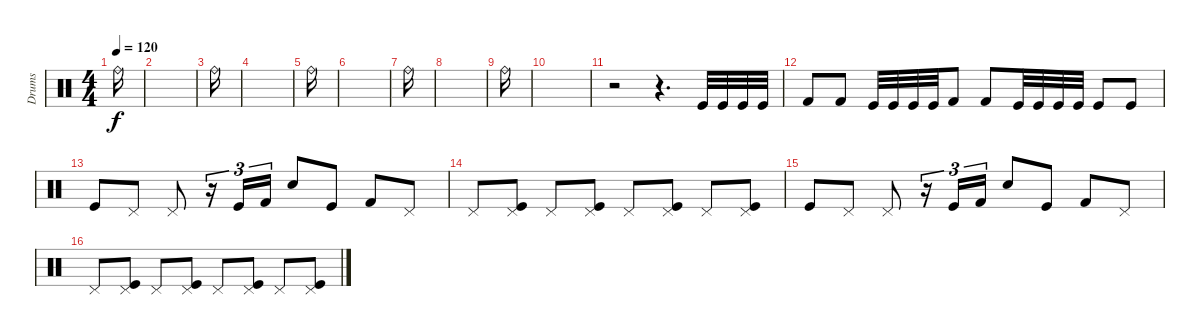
\track ("Drums" "Drums") {instrument percussion}
\staff {score}
\articulation defaults
\ts (4 4)
\tempo 120
\clef neutral
\ks c "Ride (bell)".16{dy f}
|
|
"Ride (bell)".16 |
|
"Ride (bell)".16 |
|
"Ride (bell)".16 |
|
"Ride (bell)".16 |
|
r.2 r.4{d} "Kick (hit)".32 "Kick (hit)".32 "Kick (hit)".32 "Kick (hit)".32 |
"Kick (hit) 2".8 "Kick (hit) 2".8 "Kick (hit)".32 "Kick (hit)".32 "Kick (hit)".32 "Kick (hit)".32 "Kick (hit) 2".8 "Kick (hit) 2".8 "Kick (hit)".32 "Kick (hit)".32 "Kick (hit)".32 "Kick (hit)".32 "Kick (hit)".8 "Kick (hit)".8 |
"Kick (hit)".8 "Pedal Hi-Hat (hit)".8 "Pedal Hi-Hat (hit)".8 r.16{tu (3 2)} "Kick (hit)".16{tu (3 2)} "Kick (hit) 2".16{tu (3 2)} "Snare (hit) 2".8 "Kick (hit)".8 "Kick (hit) 2".8 "Pedal Hi-Hat (hit)".8 |
"Pedal Hi-Hat (hit)".8 ("Kick (hit)" "Pedal Hi-Hat (hit)").8 "Pedal Hi-Hat (hit)".8 ("Pedal Hi-Hat (hit)" "Kick (hit)").8 "Pedal Hi-Hat (hit)".8 ("Kick (hit)" "Pedal Hi-Hat (hit)").8 "Pedal Hi-Hat (hit)".8 ("Kick (hit)" "Pedal Hi-Hat (hit)").8 |
"Kick (hit)".8 "Pedal Hi-Hat (hit)".8 "Pedal Hi-Hat (hit)".8 r.16{tu (3 2)} "Kick (hit)".16{tu (3 2)} "Kick (hit) 2".16{tu (3 2)} "Snare (hit) 2".8 "Kick (hit)".8 "Kick (hit) 2".8 "Pedal Hi-Hat (hit)".8 |
"Pedal Hi-Hat (hit)".8 ("Kick (hit)" "Pedal Hi-Hat (hit)").8 "Pedal Hi-Hat (hit)".8 ("Pedal Hi-Hat (hit)" "Kick (hit)").8 "Pedal Hi-Hat (hit)".8 ("Kick (hit)" "Pedal Hi-Hat (hit)").8 "Pedal Hi-Hat (hit)".8 ("Kick (hit)" "Pedal Hi-Hat (hit)").8
